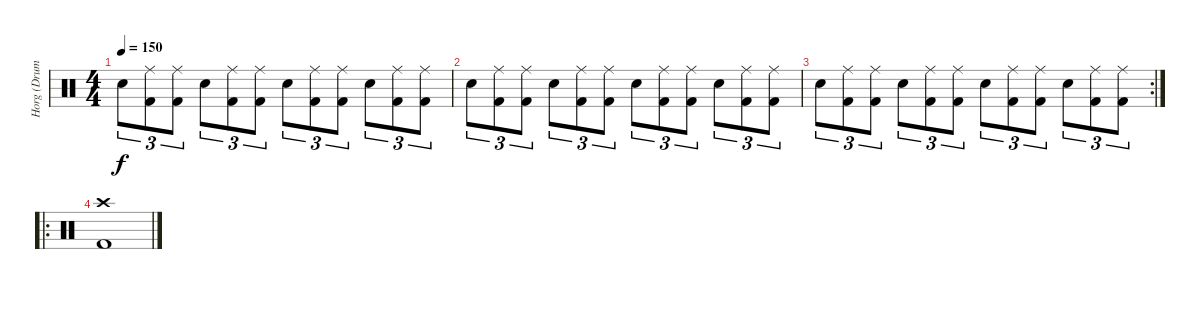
\track ("Horg (Drums)" "Horg (Drum") {instrument percussion}
\staff {score}
\articulation defaults
\ts (4 4)
\tempo 150
\clef neutral
\ks c "Electric Snare (hit)".8{tu (3 2) dy f}
("Ride (middle)" "Kick (hit) 2").8{tu (3 2)} ("Ride (middle)" "Kick (hit) 2").8{tu (3 2)} "Electric Snare (hit)".8{tu (3 2)} ("Ride (middle)" "Kick (hit) 2").8{tu (3 2)} ("Ride (middle)" "Kick (hit) 2").8{tu (3 2)} "Electric Snare (hit)".8{tu (3 2)} ("Ride (middle)" "Kick (hit) 2").8{tu (3 2)} ("Ride (middle)" "Kick (hit) 2").8{tu (3 2)} "Electric Snare (hit)".8{tu (3 2)} ("Ride (middle)" "Kick (hit) 2").8{tu (3 2)} ("Ride (middle)" "Kick (hit) 2").8{tu (3 2)} |
"Electric Snare (hit)".8{tu (3 2)} ("Ride (middle)" "Kick (hit) 2").8{tu (3 2)} ("Ride (middle)" "Kick (hit) 2").8{tu (3 2)} "Electric Snare (hit)".8{tu (3 2)} ("Ride (middle)" "Kick (hit) 2").8{tu (3 2)} ("Ride (middle)" "Kick (hit) 2").8{tu (3 2)} "Electric Snare (hit)".8{tu (3 2)} ("Ride (middle)" "Kick (hit) 2").8{tu (3 2)} ("Ride (middle)" "Kick (hit) 2").8{tu (3 2)} "Electric Snare (hit)".8{tu (3 2)} ("Ride (middle)" "Kick (hit) 2").8{tu (3 2)} ("Ride (middle)" "Kick (hit) 2").8{tu (3 2)} |
\rc 2 "Electric Snare (hit)".8{tu (3 2)}
("Ride (middle)" "Kick (hit) 2").8{tu (3 2)} ("Ride (middle)" "Kick (hit) 2").8{tu (3 2)} "Electric Snare (hit)".8{tu (3 2)} ("Ride (middle)" "Kick (hit) 2").8{tu (3 2)} ("Ride (middle)" "Kick (hit) 2").8{tu (3 2)} "Electric Snare (hit)".8{tu (3 2)} ("Ride (middle)" "Kick (hit) 2").8{tu (3 2)} ("Ride (middle)" "Kick (hit) 2").8{tu (3 2)} "Electric Snare (hit)".8{tu (3 2)} ("Ride (middle)" "Kick (hit) 2").8{tu (3 2)} ("Ride (middle)" "Kick (hit) 2").8{tu (3 2)} |
\ro
("Crash high (hit)" "Kick (hit) 2").1
